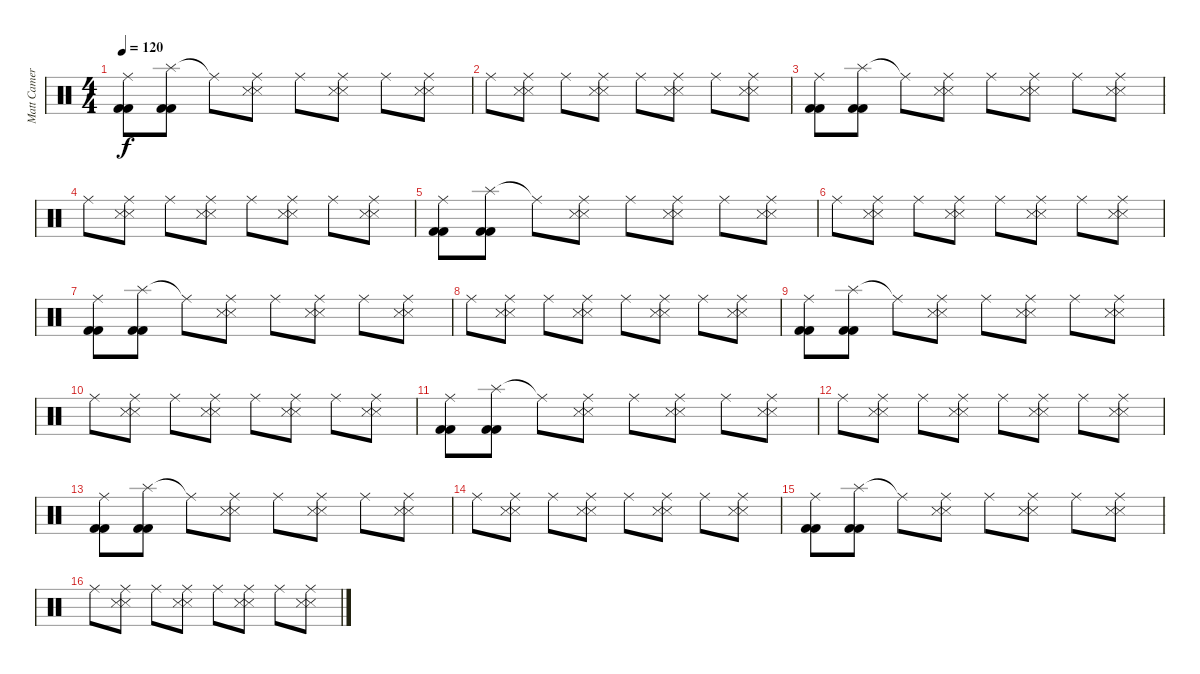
\track ("Matt Cameron" "Matt Camer") {instrument percussion}
\staff {score}
\articulation defaults
\ts (4 4)
\tempo 120
\clef neutral
\ks c
("Ride (middle)" "Kick (hit) 2" "Kick (hit) 2").8{dy f} ("Splash (hit)" "Kick (hit) 2" "Kick (hit) 2").8 "Ride (middle)"{t}.8 ("Ride (middle)" "Snare (side stick) 3" "Snare (side stick) 3").8 "Ride (middle)".8 ("Ride (middle)" "Snare (side stick) 3" "Snare (side stick) 3").8 "Ride (middle)".8 ("Ride (middle)" "Snare (side stick) 3" "Snare (side stick) 3").8 |
"Ride (middle)".8 ("Ride (middle)" "Snare (side stick) 3" "Snare (side stick) 3").8 "Ride (middle)".8 ("Ride (middle)" "Snare (side stick) 3" "Snare (side stick) 3").8 "Ride (middle)".8 ("Ride (middle)" "Snare (side stick) 3" "Snare (side stick) 3").8 "Ride (middle)".8 ("Ride (middle)" "Snare (side stick) 3" "Snare (side stick) 3").8 |
("Ride (middle)" "Kick (hit) 2" "Kick (hit) 2").8 ("Splash (hit)" "Kick (hit) 2" "Kick (hit) 2").8 "Ride (middle)"{t}.8 ("Ride (middle)" "Snare (side stick) 3" "Snare (side stick) 3").8 "Ride (middle)".8 ("Ride (middle)" "Snare (side stick) 3" "Snare (side stick) 3").8 "Ride (middle)".8 ("Ride (middle)" "Snare (side stick) 3" "Snare (side stick) 3").8 |
"Ride (middle)".8 ("Ride (middle)" "Snare (side stick) 3" "Snare (side stick) 3").8 "Ride (middle)".8 ("Ride (middle)" "Snare (side stick) 3" "Snare (side stick) 3").8 "Ride (middle)".8 ("Ride (middle)" "Snare (side stick) 3" "Snare (side stick) 3").8 "Ride (middle)".8 ("Ride (middle)" "Snare (side stick) 3" "Snare (side stick) 3").8 |
("Ride (middle)" "Kick (hit) 2" "Kick (hit) 2").8 ("Splash (hit)" "Kick (hit) 2" "Kick (hit) 2").8 "Ride (middle)"{t}.8 ("Ride (middle)" "Snare (side stick) 3" "Snare (side stick) 3").8 "Ride (middle)".8 ("Ride (middle)" "Snare (side stick) 3" "Snare (side stick) 3").8 "Ride (middle)".8 ("Ride (middle)" "Snare (side stick) 3" "Snare (side stick) 3").8 |
"Ride (middle)".8 ("Ride (middle)" "Snare (side stick) 3" "Snare (side stick) 3").8 "Ride (middle)".8 ("Ride (middle)" "Snare (side stick) 3" "Snare (side stick) 3").8 "Ride (middle)".8 ("Ride (middle)" "Snare (side stick) 3" "Snare (side stick) 3").8 "Ride (middle)".8 ("Ride (middle)" "Snare (side stick) 3" "Snare (side stick) 3").8 |
("Ride (middle)" "Kick (hit) 2" "Kick (hit) 2").8 ("Splash (hit)" "Kick (hit) 2" "Kick (hit) 2").8 "Ride (middle)"{t}.8 ("Ride (middle)" "Snare (side stick) 3" "Snare (side stick) 3").8 "Ride (middle)".8 ("Ride (middle)" "Snare (side stick) 3" "Snare (side stick) 3").8 "Ride (middle)".8 ("Ride (middle)" "Snare (side stick) 3" "Snare (side stick) 3").8 |
"Ride (middle)".8 ("Ride (middle)" "Snare (side stick) 3" "Snare (side stick) 3").8 "Ride (middle)".8 ("Ride (middle)" "Snare (side stick) 3" "Snare (side stick) 3").8 "Ride (middle)".8 ("Ride (middle)" "Snare (side stick) 3" "Snare (side stick) 3").8 "Ride (middle)".8 ("Ride (middle)" "Snare (side stick) 3" "Snare (side stick) 3").8 |
("Ride (middle)" "Kick (hit) 2" "Kick (hit) 2").8 ("Splash (hit)" "Kick (hit) 2" "Kick (hit) 2").8 "Ride (middle)"{t}.8 ("Ride (middle)" "Snare (side stick) 3" "Snare (side stick) 3").8 "Ride (middle)".8 ("Ride (middle)" "Snare (side stick) 3" "Snare (side stick) 3").8 "Ride (middle)".8 ("Ride (middle)" "Snare (side stick) 3" "Snare (side stick) 3").8 |
"Ride (middle)".8 ("Ride (middle)" "Snare (side stick) 3" "Snare (side stick) 3").8 "Ride (middle)".8 ("Ride (middle)" "Snare (side stick) 3" "Snare (side stick) 3").8 "Ride (middle)".8 ("Ride (middle)" "Snare (side stick) 3" "Snare (side stick) 3").8 "Ride (middle)".8 ("Ride (middle)" "Snare (side stick) 3" "Snare (side stick) 3").8 |
("Ride (middle)" "Kick (hit) 2" "Kick (hit) 2").8 ("Splash (hit)" "Kick (hit) 2" "Kick (hit) 2").8 "Ride (middle)"{t}.8 ("Ride (middle)" "Snare (side stick) 3" "Snare (side stick) 3").8 "Ride (middle)".8 ("Ride (middle)" "Snare (side stick) 3" "Snare (side stick) 3").8 "Ride (middle)".8 ("Ride (middle)" "Snare (side stick) 3" "Snare (side stick) 3").8 |
"Ride (middle)".8 ("Ride (middle)" "Snare (side stick) 3" "Snare (side stick) 3").8 "Ride (middle)".8 ("Ride (middle)" "Snare (side stick) 3" "Snare (side stick) 3").8 "Ride (middle)".8 ("Ride (middle)" "Snare (side stick) 3" "Snare (side stick) 3").8 "Ride (middle)".8 ("Ride (middle)" "Snare (side stick) 3" "Snare (side stick) 3").8 |
("Ride (middle)" "Kick (hit) 2" "Kick (hit) 2").8 ("Splash (hit)" "Kick (hit) 2" "Kick (hit) 2").8 "Ride (middle)"{t}.8 ("Ride (middle)" "Snare (side stick) 3" "Snare (side stick) 3").8 "Ride (middle)".8 ("Ride (middle)" "Snare (side stick) 3" "Snare (side stick) 3").8 "Ride (middle)".8 ("Ride (middle)" "Snare (side stick) 3" "Snare (side stick) 3").8 |
"Ride (middle)".8 ("Ride (middle)" "Snare (side stick) 3" "Snare (side stick) 3").8 "Ride (middle)".8 ("Ride (middle)" "Snare (side stick) 3" "Snare (side stick) 3").8 "Ride (middle)".8 ("Ride (middle)" "Snare (side stick) 3" "Snare (side stick) 3").8 "Ride (middle)".8 ("Ride (middle)" "Snare (side stick) 3" "Snare (side stick) 3").8 |
("Ride (middle)" "Kick (hit) 2" "Kick (hit) 2").8 ("Splash (hit)" "Kick (hit) 2" "Kick (hit) 2").8 "Ride (middle)"{t}.8 ("Ride (middle)" "Snare (side stick) 3" "Snare (side stick) 3").8 "Ride (middle)".8 ("Ride (middle)" "Snare (side stick) 3" "Snare (side stick) 3").8 "Ride (middle)".8 ("Ride (middle)" "Snare (side stick) 3" "Snare (side stick) 3").8 |
"Ride (middle)".8 ("Ride (middle)" "Snare (side stick) 3" "Snare (side stick) 3").8 "Ride (middle)".8 ("Ride (middle)" "Snare (side stick) 3" "Snare (side stick) 3").8 "Ride (middle)".8 ("Ride (middle)" "Snare (side stick) 3" "Snare (side stick) 3").8 "Ride (middle)".8 ("Ride (middle)" "Snare (side stick) 3" "Snare (side stick) 3").8
